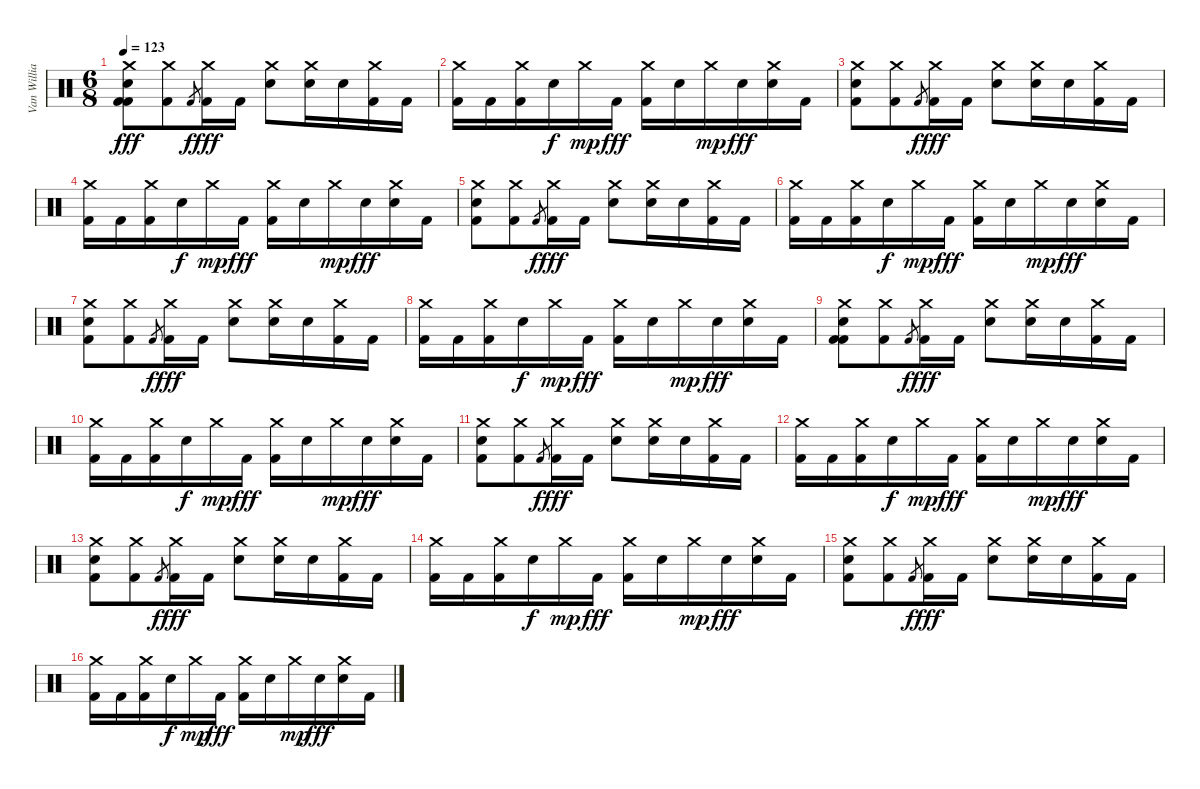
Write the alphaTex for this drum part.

\track ("Van Williams" "Van Willia") {instrument percussion}
\staff {score}
\articulation defaults
\ts (6 8)
\tempo 123
\clef neutral
\ks c
("Crash medium (hit)" "Electric Snare (hit)" "Kick (hit) 2" "Kick (hit) 2").8{dy fff} ("Crash medium (hit)" "Kick (hit) 2").8 "Kick (hit) 2".8{gr dy f} ("Crash medium (hit)" "Kick (hit) 2").16{dy fff} "Kick (hit) 2".16 ("Crash medium (hit)" "Electric Snare (hit)").8 ("Crash medium (hit)" "Electric Snare (hit)").16 "Electric Snare (hit)".16 ("Crash medium (hit)" "Kick (hit) 2").16 "Kick (hit) 2".16 |
("Crash medium (hit)" "Kick (hit) 2").16 "Kick (hit) 2".16 ("Crash medium (hit)" "Kick (hit) 2").16 "Electric Snare (hit)".16{dy f} "Crash medium (hit)".16{dy mp} "Kick (hit) 2".16{dy fff} ("Crash medium (hit)" "Kick (hit) 2").16 "Electric Snare (hit)".16 "Crash medium (hit)".16{dy mp} "Electric Snare (hit)".16{dy fff} ("Crash medium (hit)" "Electric Snare (hit)").16 "Kick (hit) 2".16 |
("Crash medium (hit)" "Electric Snare (hit)" "Kick (hit) 2").8 ("Crash medium (hit)" "Kick (hit) 2").8 "Kick (hit) 2".8{gr dy f} ("Crash medium (hit)" "Kick (hit) 2").16{dy fff} "Kick (hit) 2".16 ("Crash medium (hit)" "Electric Snare (hit)").8 ("Crash medium (hit)" "Electric Snare (hit)").16 "Electric Snare (hit)".16 ("Crash medium (hit)" "Kick (hit) 2").16 "Kick (hit) 2".16 |
("Crash medium (hit)" "Kick (hit) 2").16 "Kick (hit) 2".16 ("Crash medium (hit)" "Kick (hit) 2").16 "Electric Snare (hit)".16{dy f} "Crash medium (hit)".16{dy mp} "Kick (hit) 2".16{dy fff} ("Crash medium (hit)" "Kick (hit) 2").16 "Electric Snare (hit)".16 "Crash medium (hit)".16{dy mp} "Electric Snare (hit)".16{dy fff} ("Crash medium (hit)" "Electric Snare (hit)").16 "Kick (hit) 2".16 |
("Crash medium (hit)" "Electric Snare (hit)" "Kick (hit) 2").8 ("Crash medium (hit)" "Kick (hit) 2").8 "Kick (hit) 2".8{gr dy f} ("Crash medium (hit)" "Kick (hit) 2").16{dy fff} "Kick (hit) 2".16 ("Crash medium (hit)" "Electric Snare (hit)").8 ("Crash medium (hit)" "Electric Snare (hit)").16 "Electric Snare (hit)".16 ("Crash medium (hit)" "Kick (hit) 2").16 "Kick (hit) 2".16 |
("Crash medium (hit)" "Kick (hit) 2").16 "Kick (hit) 2".16 ("Crash medium (hit)" "Kick (hit) 2").16 "Electric Snare (hit)".16{dy f} "Crash medium (hit)".16{dy mp} "Kick (hit) 2".16{dy fff} ("Crash medium (hit)" "Kick (hit) 2").16 "Electric Snare (hit)".16 "Crash medium (hit)".16{dy mp} "Electric Snare (hit)".16{dy fff} ("Crash medium (hit)" "Electric Snare (hit)").16 "Kick (hit) 2".16 |
("Crash medium (hit)" "Electric Snare (hit)" "Kick (hit) 2").8 ("Crash medium (hit)" "Kick (hit) 2").8 "Kick (hit) 2".8{gr dy f} ("Crash medium (hit)" "Kick (hit) 2").16{dy fff} "Kick (hit) 2".16 ("Crash medium (hit)" "Electric Snare (hit)").8 ("Crash medium (hit)" "Electric Snare (hit)").16 "Electric Snare (hit)".16 ("Crash medium (hit)" "Kick (hit) 2").16 "Kick (hit) 2".16 |
("Crash medium (hit)" "Kick (hit) 2").16 "Kick (hit) 2".16 ("Crash medium (hit)" "Kick (hit) 2").16 "Electric Snare (hit)".16{dy f} "Crash medium (hit)".16{dy mp} "Kick (hit) 2".16{dy fff} ("Crash medium (hit)" "Kick (hit) 2").16 "Electric Snare (hit)".16 "Crash medium (hit)".16{dy mp} "Electric Snare (hit)".16{dy fff} ("Crash medium (hit)" "Electric Snare (hit)").16 "Kick (hit) 2".16 |
("Crash medium (hit)" "Electric Snare (hit)" "Kick (hit) 2" "Kick (hit) 2").8 ("Crash medium (hit)" "Kick (hit) 2").8 "Kick (hit) 2".8{gr dy f} ("Crash medium (hit)" "Kick (hit) 2").16{dy fff} "Kick (hit) 2".16 ("Crash medium (hit)" "Electric Snare (hit)").8 ("Crash medium (hit)" "Electric Snare (hit)").16 "Electric Snare (hit)".16 ("Crash medium (hit)" "Kick (hit) 2").16 "Kick (hit) 2".16 |
("Crash medium (hit)" "Kick (hit) 2").16 "Kick (hit) 2".16 ("Crash medium (hit)" "Kick (hit) 2").16 "Electric Snare (hit)".16{dy f} "Crash medium (hit)".16{dy mp} "Kick (hit) 2".16{dy fff} ("Crash medium (hit)" "Kick (hit) 2").16 "Electric Snare (hit)".16 "Crash medium (hit)".16{dy mp} "Electric Snare (hit)".16{dy fff} ("Crash medium (hit)" "Electric Snare (hit)").16 "Kick (hit) 2".16 |
("Crash medium (hit)" "Electric Snare (hit)" "Kick (hit) 2").8 ("Crash medium (hit)" "Kick (hit) 2").8 "Kick (hit) 2".8{gr dy f} ("Crash medium (hit)" "Kick (hit) 2").16{dy fff} "Kick (hit) 2".16 ("Crash medium (hit)" "Electric Snare (hit)").8 ("Crash medium (hit)" "Electric Snare (hit)").16 "Electric Snare (hit)".16 ("Crash medium (hit)" "Kick (hit) 2").16 "Kick (hit) 2".16 |
("Crash medium (hit)" "Kick (hit) 2").16 "Kick (hit) 2".16 ("Crash medium (hit)" "Kick (hit) 2").16 "Electric Snare (hit)".16{dy f} "Crash medium (hit)".16{dy mp} "Kick (hit) 2".16{dy fff} ("Crash medium (hit)" "Kick (hit) 2").16 "Electric Snare (hit)".16 "Crash medium (hit)".16{dy mp} "Electric Snare (hit)".16{dy fff} ("Crash medium (hit)" "Electric Snare (hit)").16 "Kick (hit) 2".16 |
("Crash medium (hit)" "Electric Snare (hit)" "Kick (hit) 2").8 ("Crash medium (hit)" "Kick (hit) 2").8 "Kick (hit) 2".8{gr dy f} ("Crash medium (hit)" "Kick (hit) 2").16{dy fff} "Kick (hit) 2".16 ("Crash medium (hit)" "Electric Snare (hit)").8 ("Crash medium (hit)" "Electric Snare (hit)").16 "Electric Snare (hit)".16 ("Crash medium (hit)" "Kick (hit) 2").16 "Kick (hit) 2".16 |
("Crash medium (hit)" "Kick (hit) 2").16 "Kick (hit) 2".16 ("Crash medium (hit)" "Kick (hit) 2").16 "Electric Snare (hit)".16{dy f} "Crash medium (hit)".16{dy mp} "Kick (hit) 2".16{dy fff} ("Crash medium (hit)" "Kick (hit) 2").16 "Electric Snare (hit)".16 "Crash medium (hit)".16{dy mp} "Electric Snare (hit)".16{dy fff} ("Crash medium (hit)" "Electric Snare (hit)").16 "Kick (hit) 2".16 |
("Crash medium (hit)" "Electric Snare (hit)" "Kick (hit) 2").8 ("Crash medium (hit)" "Kick (hit) 2").8 "Kick (hit) 2".8{gr dy f} ("Crash medium (hit)" "Kick (hit) 2").16{dy fff} "Kick (hit) 2".16 ("Crash medium (hit)" "Electric Snare (hit)").8 ("Crash medium (hit)" "Electric Snare (hit)").16 "Electric Snare (hit)".16 ("Crash medium (hit)" "Kick (hit) 2").16 "Kick (hit) 2".16 |
("Crash medium (hit)" "Kick (hit) 2").16 "Kick (hit) 2".16 ("Crash medium (hit)" "Kick (hit) 2").16 "Electric Snare (hit)".16{dy f} "Crash medium (hit)".16{dy mp} "Kick (hit) 2".16{dy fff} ("Crash medium (hit)" "Kick (hit) 2").16 "Electric Snare (hit)".16 "Crash medium (hit)".16{dy mp} "Electric Snare (hit)".16{dy fff} ("Crash medium (hit)" "Electric Snare (hit)").16 "Kick (hit) 2".16
